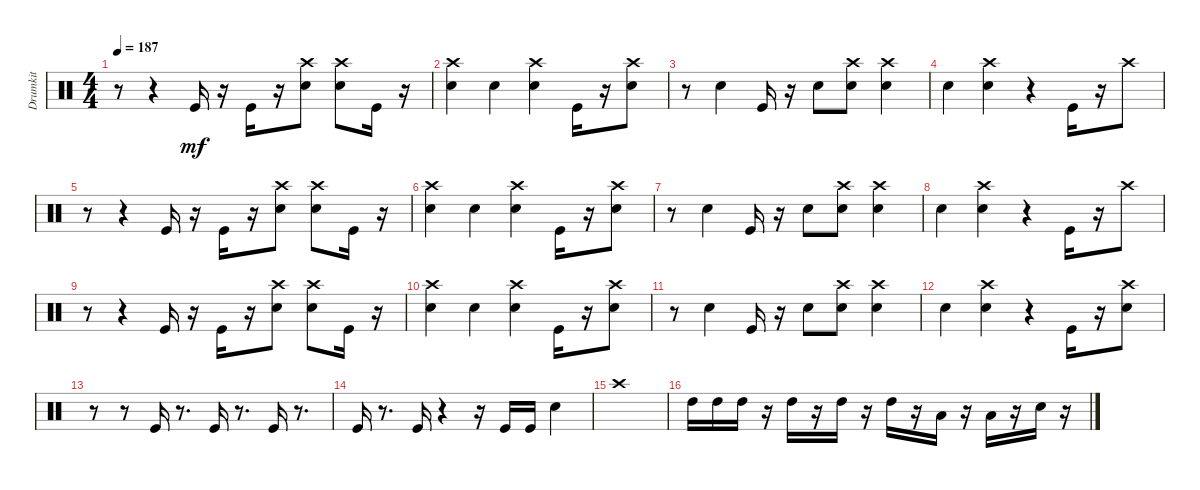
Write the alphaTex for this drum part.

\track ("Drumkit" "Drumkit") {instrument percussion}
\staff {score}
\articulation defaults
\ts (4 4)
\tempo 187
\clef neutral
\ks c
r.8{dy mf} r.4 "Kick (hit)".16 r.16 "Kick (hit)".16 r.16 ("Crash high (hit)" "Snare (hit) 2").8 ("Crash high (hit)" "Snare (hit) 2").8 "Kick (hit)".16 r.16 |
("Crash high (hit)" "Snare (hit) 2").4 "Snare (hit) 2".4 ("Crash high (hit)" "Snare (hit) 2").4 "Kick (hit)".16 r.16 ("Crash high (hit)" "Snare (hit) 2").8 |
r.8 "Snare (hit) 2".4 "Kick (hit)".16 r.16 "Snare (hit) 2".8 ("Crash high (hit)" "Snare (hit) 2").8 ("Crash high (hit)" "Snare (hit) 2").4 |
"Snare (hit) 2".4 ("Crash high (hit)" "Snare (hit) 2").4 r.4 "Kick (hit)".16 r.16 "Crash high (hit)".8 |
r.8 r.4 "Kick (hit)".16 r.16 "Kick (hit)".16 r.16 ("Crash high (hit)" "Snare (hit) 2").8 ("Crash high (hit)" "Snare (hit) 2").8 "Kick (hit)".16 r.16 |
("Crash high (hit)" "Snare (hit) 2").4 "Snare (hit) 2".4 ("Crash high (hit)" "Snare (hit) 2").4 "Kick (hit)".16 r.16 ("Crash high (hit)" "Snare (hit) 2").8 |
r.8 "Snare (hit) 2".4 "Kick (hit)".16 r.16 "Snare (hit) 2".8 ("Crash high (hit)" "Snare (hit) 2").8 ("Crash high (hit)" "Snare (hit) 2").4 |
"Snare (hit) 2".4 ("Crash high (hit)" "Snare (hit) 2").4 r.4 "Kick (hit)".16 r.16 "Crash high (hit)".8 |
r.8 r.4 "Kick (hit)".16 r.16 "Kick (hit)".16 r.16 ("Crash high (hit)" "Snare (hit) 2").8 ("Crash high (hit)" "Snare (hit) 2").8 "Kick (hit)".16 r.16 |
("Crash high (hit)" "Snare (hit) 2").4 "Snare (hit) 2".4 ("Crash high (hit)" "Snare (hit) 2").4 "Kick (hit)".16 r.16 ("Crash high (hit)" "Snare (hit) 2").8 |
r.8 "Snare (hit) 2".4 "Kick (hit)".16 r.16 "Snare (hit) 2".8 ("Crash high (hit)" "Snare (hit) 2").8 ("Crash high (hit)" "Snare (hit) 2").4 |
"Snare (hit) 2".4 ("Crash high (hit)" "Snare (hit) 2").4 r.4 "Kick (hit)".16 r.16 ("Crash high (hit)" "Snare (hit) 2").8 |
r.8 r.8 "Kick (hit)".16 r.8{d} "Kick (hit)".16 r.8{d} "Kick (hit)".16 r.8{d} |
"Kick (hit)".16 r.8{d} "Kick (hit)".16 r.4 r.16 "Kick (hit)".16 "Kick (hit)".16 "Snare (hit) 2".4 |
"Crash high (hit)".1 |
"High Tom (hit)".16 "High Tom (hit)".16 "High Tom (hit)".16 r.16 "High Tom (hit)".16 r.16 "High Tom (hit)".16 r.16 "High Tom (hit)".16 r.16 "Low Tom (hit)".16 r.16 "Low Tom (hit)".16 r.16 "Snare (hit) 2".16 r.16
